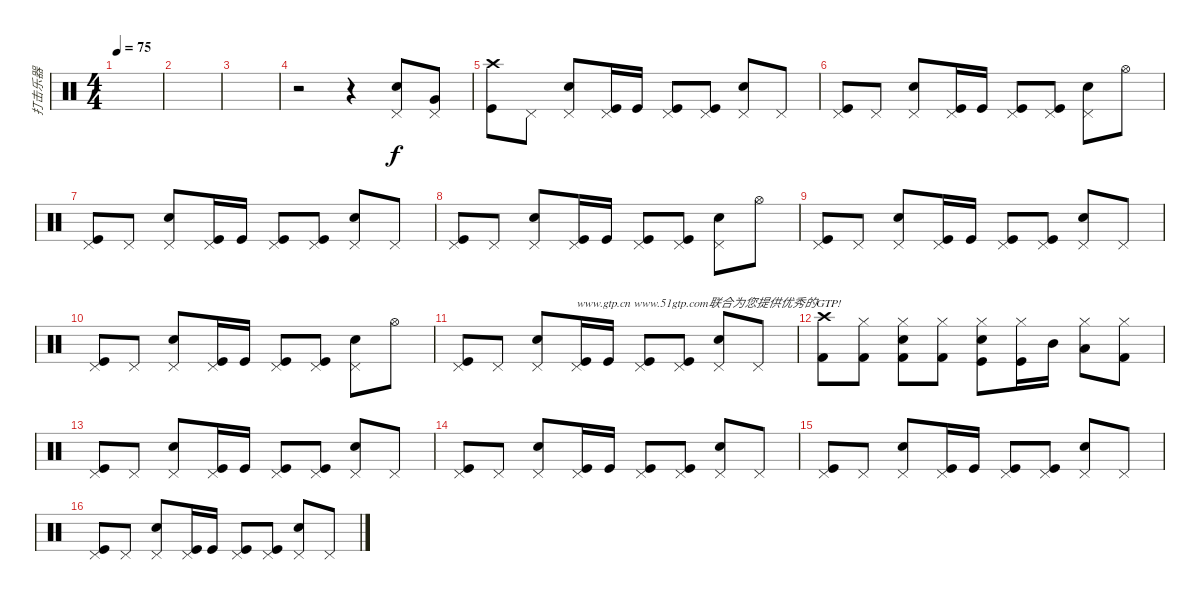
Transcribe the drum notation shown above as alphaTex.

\track ("打击乐器" "打击乐器") {instrument percussion}
\staff {score}
\articulation defaults
\ts (4 4)
\tempo 75
\clef neutral
\ks c
|
|
|
r.2 r.4 ("Pedal Hi-Hat (hit)" "Electric Snare (hit)").8 ("Pedal Hi-Hat (hit)" "Very Low Tom (hit)").8 |
("Crash high (hit)" "Kick (hit)").8 "Pedal Hi-Hat (hit)".8 ("Pedal Hi-Hat (hit)" "Electric Snare (hit)").8 ("Pedal Hi-Hat (hit)" "Kick (hit)").16 "Kick (hit)".16 ("Pedal Hi-Hat (hit)" "Kick (hit)").8 ("Pedal Hi-Hat (hit)" "Kick (hit)").8 ("Pedal Hi-Hat (hit)" "Electric Snare (hit)").8 "Pedal Hi-Hat (hit)".8 |
("Pedal Hi-Hat (hit)" "Kick (hit)").8 "Pedal Hi-Hat (hit)".8 ("Pedal Hi-Hat (hit)" "Electric Snare (hit)").8 ("Pedal Hi-Hat (hit)" "Kick (hit)").16 "Kick (hit)".16 ("Pedal Hi-Hat (hit)" "Kick (hit)").8 ("Pedal Hi-Hat (hit)" "Kick (hit)").8 ("Pedal Hi-Hat (hit)" "Electric Snare (hit)").8 "Hi-Hat (open)".8 |
("Pedal Hi-Hat (hit)" "Kick (hit)").8 "Pedal Hi-Hat (hit)".8 ("Pedal Hi-Hat (hit)" "Electric Snare (hit)").8 ("Pedal Hi-Hat (hit)" "Kick (hit)").16 "Kick (hit)".16 ("Pedal Hi-Hat (hit)" "Kick (hit)").8 ("Pedal Hi-Hat (hit)" "Kick (hit)").8 ("Pedal Hi-Hat (hit)" "Electric Snare (hit)").8 "Pedal Hi-Hat (hit)".8 |
("Pedal Hi-Hat (hit)" "Kick (hit)").8 "Pedal Hi-Hat (hit)".8 ("Pedal Hi-Hat (hit)" "Electric Snare (hit)").8 ("Pedal Hi-Hat (hit)" "Kick (hit)").16 "Kick (hit)".16 ("Pedal Hi-Hat (hit)" "Kick (hit)").8 ("Pedal Hi-Hat (hit)" "Kick (hit)").8 ("Pedal Hi-Hat (hit)" "Electric Snare (hit)").8 "Hi-Hat (open)".8 |
("Pedal Hi-Hat (hit)" "Kick (hit)").8 "Pedal Hi-Hat (hit)".8 ("Pedal Hi-Hat (hit)" "Electric Snare (hit)").8 ("Pedal Hi-Hat (hit)" "Kick (hit)").16 "Kick (hit)".16 ("Pedal Hi-Hat (hit)" "Kick (hit)").8 ("Pedal Hi-Hat (hit)" "Kick (hit)").8 ("Pedal Hi-Hat (hit)" "Electric Snare (hit)").8 "Pedal Hi-Hat (hit)".8 |
("Pedal Hi-Hat (hit)" "Kick (hit)").8 "Pedal Hi-Hat (hit)".8 ("Pedal Hi-Hat (hit)" "Electric Snare (hit)").8 ("Pedal Hi-Hat (hit)" "Kick (hit)").16 "Kick (hit)".16 ("Pedal Hi-Hat (hit)" "Kick (hit)").8 ("Pedal Hi-Hat (hit)" "Kick (hit)").8 ("Pedal Hi-Hat (hit)" "Electric Snare (hit)").8 "Hi-Hat (open)".8 |
("Pedal Hi-Hat (hit)" "Kick (hit)").8 "Pedal Hi-Hat (hit)".8 ("Pedal Hi-Hat (hit)" "Electric Snare (hit)").8 ("Pedal Hi-Hat (hit)" "Kick (hit)").16{txt "www.gtp.cn www.51gtp.com联合为您提供优秀的GTP!"} "Kick (hit)".16 ("Pedal Hi-Hat (hit)" "Kick (hit)").8 ("Pedal Hi-Hat (hit)" "Kick (hit)").8 ("Pedal Hi-Hat (hit)" "Electric Snare (hit)").8 "Pedal Hi-Hat (hit)".8 |
("Crash high (hit)" "Kick (hit) 2").8 ("Hi-Hat (closed)" "Kick (hit) 2").8 ("Hi-Hat (closed)" "Electric Snare (hit)" "Kick (hit) 2").8 ("Hi-Hat (closed)" "Kick (hit) 2").8 ("Hi-Hat (closed)" "Electric Snare (hit)" "Kick (hit)").8 ("Hi-Hat (closed)" "Kick (hit)").16 "Mid Tom (hit)".16 ("Hi-Hat (closed)" "Low Tom (hit)").8 ("Hi-Hat (closed)" "Kick (hit) 2").8 |
("Pedal Hi-Hat (hit)" "Kick (hit)").8 "Pedal Hi-Hat (hit)".8 ("Pedal Hi-Hat (hit)" "Electric Snare (hit)").8 ("Pedal Hi-Hat (hit)" "Kick (hit)").16 "Kick (hit)".16 ("Pedal Hi-Hat (hit)" "Kick (hit)").8 ("Pedal Hi-Hat (hit)" "Kick (hit)").8 ("Pedal Hi-Hat (hit)" "Electric Snare (hit)").8 "Pedal Hi-Hat (hit)".8 |
("Pedal Hi-Hat (hit)" "Kick (hit)").8 "Pedal Hi-Hat (hit)".8 ("Pedal Hi-Hat (hit)" "Electric Snare (hit)").8 ("Pedal Hi-Hat (hit)" "Kick (hit)").16 "Kick (hit)".16 ("Pedal Hi-Hat (hit)" "Kick (hit)").8 ("Pedal Hi-Hat (hit)" "Kick (hit)").8 ("Pedal Hi-Hat (hit)" "Electric Snare (hit)").8 "Pedal Hi-Hat (hit)".8 |
("Pedal Hi-Hat (hit)" "Kick (hit)").8 "Pedal Hi-Hat (hit)".8 ("Pedal Hi-Hat (hit)" "Electric Snare (hit)").8 ("Pedal Hi-Hat (hit)" "Kick (hit)").16 "Kick (hit)".16 ("Pedal Hi-Hat (hit)" "Kick (hit)").8 ("Pedal Hi-Hat (hit)" "Kick (hit)").8 ("Pedal Hi-Hat (hit)" "Electric Snare (hit)").8 "Pedal Hi-Hat (hit)".8 |
("Pedal Hi-Hat (hit)" "Kick (hit)").8 "Pedal Hi-Hat (hit)".8 ("Pedal Hi-Hat (hit)" "Electric Snare (hit)").8 ("Pedal Hi-Hat (hit)" "Kick (hit)").16 "Kick (hit)".16 ("Pedal Hi-Hat (hit)" "Kick (hit)").8 ("Pedal Hi-Hat (hit)" "Kick (hit)").8 ("Pedal Hi-Hat (hit)" "Electric Snare (hit)").8 "Pedal Hi-Hat (hit)".8
